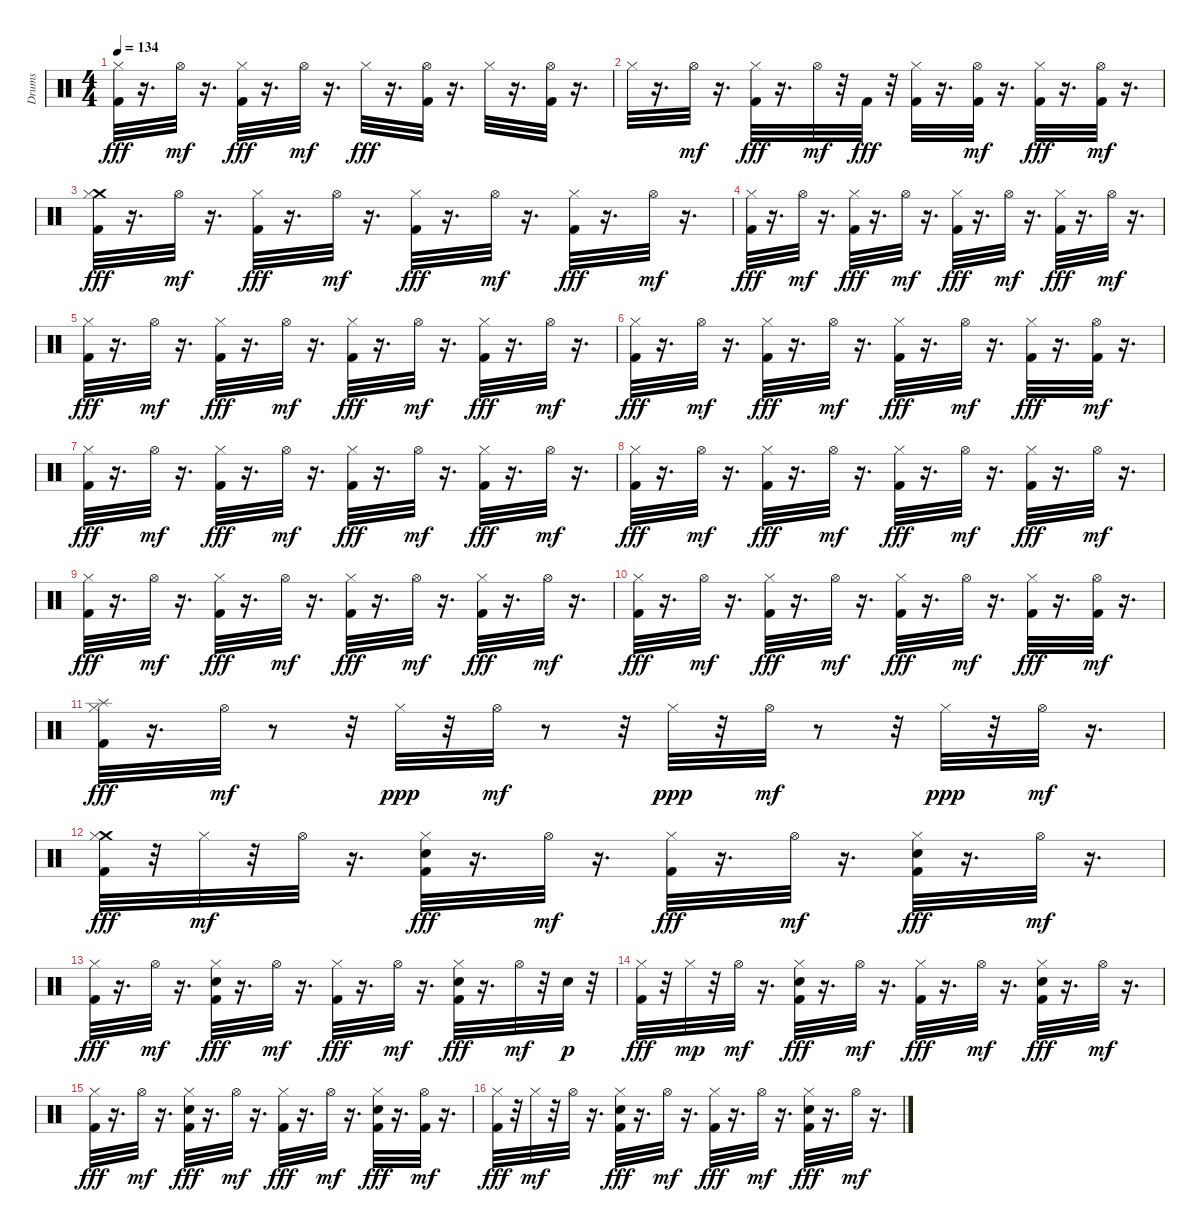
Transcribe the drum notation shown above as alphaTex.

\track ("Drums" "Drums") {instrument percussion}
\staff {score}
\articulation defaults
\ts (4 4)
\tempo 134
\clef neutral
\ks c
("Kick (hit) 2" "Hi-Hat (closed)").32{dy fff} r.16{d} "Hi-Hat (open)".32{dy mf} r.16{d} ("Kick (hit) 2" "Hi-Hat (closed)").32{dy fff} r.16{d} "Hi-Hat (open)".32{dy mf} r.16{d} "Hi-Hat (closed)".32{dy fff} r.16{d} ("Hi-Hat (open)" "Kick (hit) 2").32 r.16{d} "Hi-Hat (closed)".32 r.16{d} ("Hi-Hat (open)" "Kick (hit) 2").32 r.16{d} |
"Hi-Hat (closed)".32 r.16{d} "Hi-Hat (open)".32{dy mf} r.16{d} ("Kick (hit) 2" "Hi-Hat (closed)").32{dy fff} r.16{d} "Hi-Hat (open)".32{dy mf} r.32 "Kick (hit) 2".32{dy fff} r.32 ("Kick (hit) 2" "Hi-Hat (closed)").32 r.16{d} ("Kick (hit) 2" "Hi-Hat (open)").32{dy mf} r.16{d} ("Kick (hit) 2" "Hi-Hat (closed)").32{dy fff} r.16{d} ("Kick (hit) 2" "Hi-Hat (open)").32{dy mf} r.16{d} |
("Crash medium (hit)" "Kick (hit) 2" "Hi-Hat (closed)").32{dy fff} r.16{d} "Hi-Hat (open)".32{dy mf} r.16{d} ("Kick (hit) 2" "Hi-Hat (closed)").32{dy fff} r.16{d} "Hi-Hat (open)".32{dy mf} r.16{d} ("Kick (hit) 2" "Hi-Hat (closed)").32{dy fff} r.16{d} "Hi-Hat (open)".32{dy mf} r.16{d} ("Kick (hit) 2" "Hi-Hat (closed)").32{dy fff} r.16{d} "Hi-Hat (open)".32{dy mf} r.16{d} |
("Kick (hit) 2" "Hi-Hat (closed)").32{dy fff} r.16{d} "Hi-Hat (open)".32{dy mf} r.16{d} ("Kick (hit) 2" "Hi-Hat (closed)").32{dy fff} r.16{d} "Hi-Hat (open)".32{dy mf} r.16{d} ("Kick (hit) 2" "Hi-Hat (closed)").32{dy fff} r.16{d} "Hi-Hat (open)".32{dy mf} r.16{d} ("Kick (hit) 2" "Hi-Hat (closed)").32{dy fff} r.16{d} "Hi-Hat (open)".32{dy mf} r.16{d} |
("Kick (hit) 2" "Hi-Hat (closed)").32{dy fff} r.16{d} "Hi-Hat (open)".32{dy mf} r.16{d} ("Kick (hit) 2" "Hi-Hat (closed)").32{dy fff} r.16{d} "Hi-Hat (open)".32{dy mf} r.16{d} ("Kick (hit) 2" "Hi-Hat (closed)").32{dy fff} r.16{d} "Hi-Hat (open)".32{dy mf} r.16{d} ("Kick (hit) 2" "Hi-Hat (closed)").32{dy fff} r.16{d} "Hi-Hat (open)".32{dy mf} r.16{d} |
("Kick (hit) 2" "Hi-Hat (closed)").32{dy fff} r.16{d} "Hi-Hat (open)".32{dy mf} r.16{d} ("Kick (hit) 2" "Hi-Hat (closed)").32{dy fff} r.16{d} "Hi-Hat (open)".32{dy mf} r.16{d} ("Kick (hit) 2" "Hi-Hat (closed)").32{dy fff} r.16{d} "Hi-Hat (open)".32{dy mf} r.16{d} ("Kick (hit) 2" "Hi-Hat (closed)").32{dy fff} r.16{d} ("Kick (hit) 2" "Hi-Hat (open)").32{dy mf} r.16{d} |
("Kick (hit) 2" "Hi-Hat (closed)").32{dy fff} r.16{d} "Hi-Hat (open)".32{dy mf} r.16{d} ("Kick (hit) 2" "Hi-Hat (closed)").32{dy fff} r.16{d} "Hi-Hat (open)".32{dy mf} r.16{d} ("Kick (hit) 2" "Hi-Hat (closed)").32{dy fff} r.16{d} "Hi-Hat (open)".32{dy mf} r.16{d} ("Kick (hit) 2" "Hi-Hat (closed)").32{dy fff} r.16{d} "Hi-Hat (open)".32{dy mf} r.16{d} |
("Kick (hit) 2" "Hi-Hat (closed)").32{dy fff} r.16{d} "Hi-Hat (open)".32{dy mf} r.16{d} ("Kick (hit) 2" "Hi-Hat (closed)").32{dy fff} r.16{d} "Hi-Hat (open)".32{dy mf} r.16{d} ("Kick (hit) 2" "Hi-Hat (closed)").32{dy fff} r.16{d} "Hi-Hat (open)".32{dy mf} r.16{d} ("Kick (hit) 2" "Hi-Hat (closed)").32{dy fff} r.16{d} "Hi-Hat (open)".32{dy mf} r.16{d} |
("Kick (hit) 2" "Hi-Hat (closed)").32{dy fff} r.16{d} "Hi-Hat (open)".32{dy mf} r.16{d} ("Kick (hit) 2" "Hi-Hat (closed)").32{dy fff} r.16{d} "Hi-Hat (open)".32{dy mf} r.16{d} ("Kick (hit) 2" "Hi-Hat (closed)").32{dy fff} r.16{d} "Hi-Hat (open)".32{dy mf} r.16{d} ("Kick (hit) 2" "Hi-Hat (closed)").32{dy fff} r.16{d} "Hi-Hat (open)".32{dy mf} r.16{d} |
("Kick (hit) 2" "Hi-Hat (closed)").32{dy fff} r.16{d} "Hi-Hat (open)".32{dy mf} r.16{d} ("Kick (hit) 2" "Hi-Hat (closed)").32{dy fff} r.16{d} "Hi-Hat (open)".32{dy mf} r.16{d} ("Kick (hit) 2" "Hi-Hat (closed)").32{dy fff} r.16{d} "Hi-Hat (open)".32{dy mf} r.16{d} ("Kick (hit) 2" "Hi-Hat (closed)").32{dy fff} r.16{d} ("Kick (hit) 2" "Hi-Hat (open)").32{dy mf} r.16{d} |
("Kick (hit) 2" "Hi-Hat (closed)" "Splash (hit)").32{dy fff} r.16{d} "Hi-Hat (open)".32{dy mf} r.8 r.32 "Hi-Hat (closed)".32{dy ppp} r.32 "Hi-Hat (open)".32{dy mf} r.8 r.32 "Hi-Hat (closed)".32{dy ppp} r.32 "Hi-Hat (open)".32{dy mf} r.8 r.32 "Hi-Hat (closed)".32{dy ppp} r.32 "Hi-Hat (open)".32{dy mf} r.16{d} |
("Crash medium (hit)" "Kick (hit) 2" "Hi-Hat (closed)").32{dy fff} r.32 "Hi-Hat (closed)".32{dy mf} r.32 "Hi-Hat (open)".32 r.16{d} ("Electric Snare (hit)" "Kick (hit) 2" "Hi-Hat (closed)").32{dy fff} r.16{d} "Hi-Hat (open)".32{dy mf} r.16{d} ("Kick (hit) 2" "Hi-Hat (closed)").32{dy fff} r.16{d} "Hi-Hat (open)".32{dy mf} r.16{d} ("Electric Snare (hit)" "Kick (hit) 2" "Hi-Hat (closed)").32{dy fff} r.16{d} "Hi-Hat (open)".32{dy mf} r.16{d} |
("Kick (hit) 2" "Hi-Hat (closed)").32{dy fff} r.16{d} "Hi-Hat (open)".32{dy mf} r.16{d} ("Electric Snare (hit)" "Kick (hit) 2" "Hi-Hat (closed)").32{dy fff} r.16{d} "Hi-Hat (open)".32{dy mf} r.16{d} ("Kick (hit) 2" "Hi-Hat (closed)").32{dy fff} r.16{d} "Hi-Hat (open)".32{dy mf} r.16{d} ("Electric Snare (hit)" "Kick (hit) 2" "Hi-Hat (closed)").32{dy fff} r.16{d} "Hi-Hat (open)".32{dy mf} r.32 "Electric Snare (hit)".32{dy p} r.32 |
("Kick (hit) 2" "Hi-Hat (closed)").32{dy fff} r.32 "Hi-Hat (closed)".32{dy mp} r.32 "Hi-Hat (open)".32{dy mf} r.16{d} ("Electric Snare (hit)" "Kick (hit) 2" "Hi-Hat (closed)").32{dy fff} r.16{d} "Hi-Hat (open)".32{dy mf} r.16{d} ("Kick (hit) 2" "Hi-Hat (closed)").32{dy fff} r.16{d} "Hi-Hat (open)".32{dy mf} r.16{d} ("Electric Snare (hit)" "Kick (hit) 2" "Hi-Hat (closed)").32{dy fff} r.16{d} "Hi-Hat (open)".32{dy mf} r.16{d} |
("Kick (hit) 2" "Hi-Hat (closed)").32{dy fff} r.16{d} "Hi-Hat (open)".32{dy mf} r.16{d} ("Electric Snare (hit)" "Kick (hit) 2" "Hi-Hat (closed)").32{dy fff} r.16{d} "Hi-Hat (open)".32{dy mf} r.16{d} ("Kick (hit) 2" "Hi-Hat (closed)").32{dy fff} r.16{d} "Hi-Hat (open)".32{dy mf} r.16{d} ("Electric Snare (hit)" "Kick (hit) 2" "Hi-Hat (closed)").32{dy fff} r.16{d} ("Kick (hit) 2" "Hi-Hat (open)").32{dy mf} r.16{d} |
("Kick (hit) 2" "Hi-Hat (closed)").32{dy fff} r.32 "Hi-Hat (closed)".32{dy mf} r.32 "Hi-Hat (open)".32 r.16{d} ("Electric Snare (hit)" "Kick (hit) 2" "Hi-Hat (closed)").32{dy fff} r.16{d} "Hi-Hat (open)".32{dy mf} r.16{d} ("Kick (hit) 2" "Hi-Hat (closed)").32{dy fff} r.16{d} "Hi-Hat (open)".32{dy mf} r.16{d} ("Electric Snare (hit)" "Kick (hit) 2" "Hi-Hat (closed)").32{dy fff} r.16{d} "Hi-Hat (open)".32{dy mf} r.16{d}
